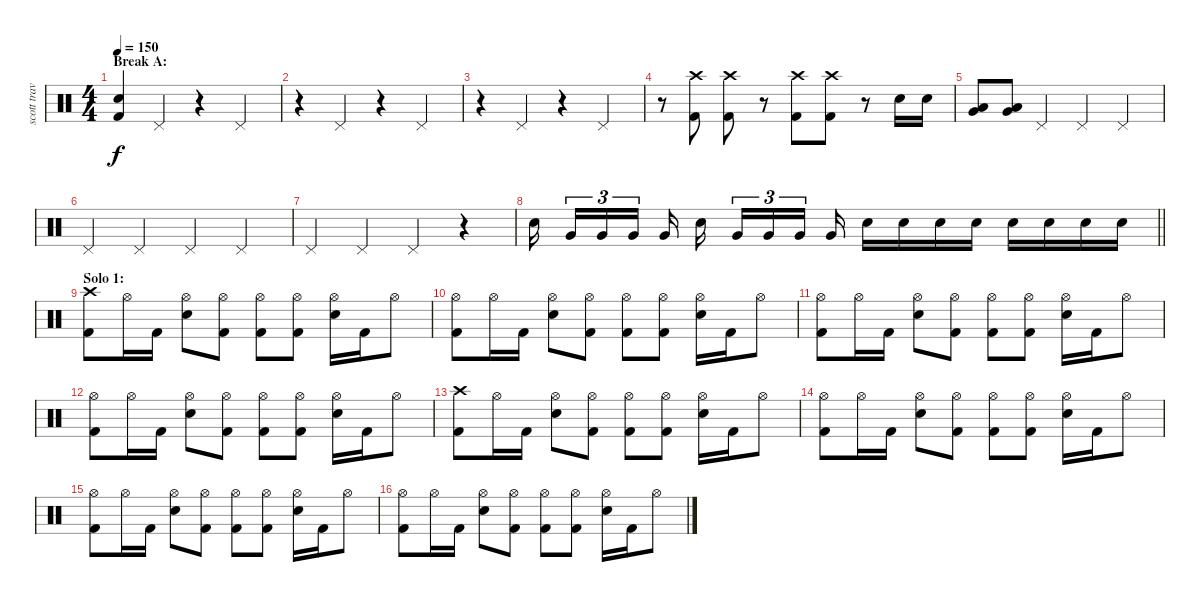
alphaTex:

\track ("scott travis" "scott trav") {instrument percussion}
\staff {score}
\articulation defaults
\ts (4 4)
\section ("" "Break A:")
\tempo 150
\clef neutral
\ks c
("Snare (hit) 2" "Kick (hit) 2").4{dy f} "Pedal Hi-Hat (hit)".4 r.4 "Pedal Hi-Hat (hit)".4 |
r.4 "Pedal Hi-Hat (hit)".4 r.4 "Pedal Hi-Hat (hit)".4 |
r.4 "Pedal Hi-Hat (hit)".4 r.4 "Pedal Hi-Hat (hit)".4 |
r.8 ("Crash high (hit)" "Kick (hit) 2").8 ("Crash high (hit)" "Kick (hit) 2").8 r.8 ("Crash high (hit)" "Kick (hit) 2").8 ("Crash high (hit)" "Kick (hit) 2").8 r.8 "Snare (hit) 2".16 "Snare (hit) 2".16 |
("Low Tom (hit)" "Very Low Tom (hit)").8 ("Low Tom (hit)" "Very Low Tom (hit)").8 "Pedal Hi-Hat (hit)".4 "Pedal Hi-Hat (hit)".4 "Pedal Hi-Hat (hit)".4 |
"Pedal Hi-Hat (hit)".4 "Pedal Hi-Hat (hit)".4 "Pedal Hi-Hat (hit)".4 "Pedal Hi-Hat (hit)".4 |
"Pedal Hi-Hat (hit)".4 "Pedal Hi-Hat (hit)".4 "Pedal Hi-Hat (hit)".4 r.4 |
\barLineRight lightlight "Snare (hit) 2".16{beam splitsecondary} "Very Low Tom (hit)".16{tu (3 2)} "Very Low Tom (hit)".16{tu (3 2)} "Very Low Tom (hit)".16{tu (3 2) beam splitsecondary} "Very Low Tom (hit)".16 "Snare (hit) 2".16{beam splitsecondary} "Very Low Tom (hit)".16{tu (3 2)} "Very Low Tom (hit)".16{tu (3 2)} "Very Low Tom (hit)".16{tu (3 2) beam splitsecondary} "Very Low Tom (hit)".16 "Snare (hit) 2".16 "Snare (hit) 2".16 "Snare (hit) 2".16 "Snare (hit) 2".16 "Snare (hit) 2".16 "Snare (hit) 2".16 "Snare (hit) 2".16 "Snare (hit) 2".16
|
\section ("" "Solo 1:")
("Crash high (hit)" "Kick (hit) 2").8 "Hi-Hat (open)".16 "Kick (hit) 2".16 ("Hi-Hat (open)" "Snare (hit) 2").8 ("Hi-Hat (open)" "Kick (hit) 2").8 ("Hi-Hat (open)" "Kick (hit) 2").8 ("Hi-Hat (open)" "Kick (hit) 2").8 ("Hi-Hat (open)" "Snare (hit) 2").16 "Kick (hit) 2".16 "Hi-Hat (open)".8 |
("Hi-Hat (open)" "Kick (hit) 2").8 "Hi-Hat (open)".16 "Kick (hit) 2".16 ("Hi-Hat (open)" "Snare (hit) 2").8 ("Hi-Hat (open)" "Kick (hit) 2").8 ("Hi-Hat (open)" "Kick (hit) 2").8 ("Hi-Hat (open)" "Kick (hit) 2").8 ("Hi-Hat (open)" "Snare (hit) 2").16 "Kick (hit) 2".16 "Hi-Hat (open)".8 |
("Hi-Hat (open)" "Kick (hit) 2").8 "Hi-Hat (open)".16 "Kick (hit) 2".16 ("Hi-Hat (open)" "Snare (hit) 2").8 ("Hi-Hat (open)" "Kick (hit) 2").8 ("Hi-Hat (open)" "Kick (hit) 2").8 ("Hi-Hat (open)" "Kick (hit) 2").8 ("Hi-Hat (open)" "Snare (hit) 2").16 "Kick (hit) 2".16 "Hi-Hat (open)".8 |
("Hi-Hat (open)" "Kick (hit) 2").8 "Hi-Hat (open)".16 "Kick (hit) 2".16 ("Hi-Hat (open)" "Snare (hit) 2").8 ("Hi-Hat (open)" "Kick (hit) 2").8 ("Hi-Hat (open)" "Kick (hit) 2").8 ("Hi-Hat (open)" "Kick (hit) 2").8 ("Hi-Hat (open)" "Snare (hit) 2").16 "Kick (hit) 2".16 "Hi-Hat (open)".8 |
("Crash high (hit)" "Kick (hit) 2").8 "Hi-Hat (open)".16 "Kick (hit) 2".16 ("Hi-Hat (open)" "Snare (hit) 2").8 ("Hi-Hat (open)" "Kick (hit) 2").8 ("Hi-Hat (open)" "Kick (hit) 2").8 ("Hi-Hat (open)" "Kick (hit) 2").8 ("Hi-Hat (open)" "Snare (hit) 2").16 "Kick (hit) 2".16 "Hi-Hat (open)".8 |
("Hi-Hat (open)" "Kick (hit) 2").8 "Hi-Hat (open)".16 "Kick (hit) 2".16 ("Hi-Hat (open)" "Snare (hit) 2").8 ("Hi-Hat (open)" "Kick (hit) 2").8 ("Hi-Hat (open)" "Kick (hit) 2").8 ("Hi-Hat (open)" "Kick (hit) 2").8 ("Hi-Hat (open)" "Snare (hit) 2").16 "Kick (hit) 2".16 "Hi-Hat (open)".8 |
("Hi-Hat (open)" "Kick (hit) 2").8 "Hi-Hat (open)".16 "Kick (hit) 2".16 ("Hi-Hat (open)" "Snare (hit) 2").8 ("Hi-Hat (open)" "Kick (hit) 2").8 ("Hi-Hat (open)" "Kick (hit) 2").8 ("Hi-Hat (open)" "Kick (hit) 2").8 ("Hi-Hat (open)" "Snare (hit) 2").16 "Kick (hit) 2".16 "Hi-Hat (open)".8 |
("Hi-Hat (open)" "Kick (hit) 2").8 "Hi-Hat (open)".16 "Kick (hit) 2".16 ("Hi-Hat (open)" "Snare (hit) 2").8 ("Hi-Hat (open)" "Kick (hit) 2").8 ("Hi-Hat (open)" "Kick (hit) 2").8 ("Hi-Hat (open)" "Kick (hit) 2").8 ("Hi-Hat (open)" "Snare (hit) 2").16 "Kick (hit) 2".16 "Hi-Hat (open)".8
